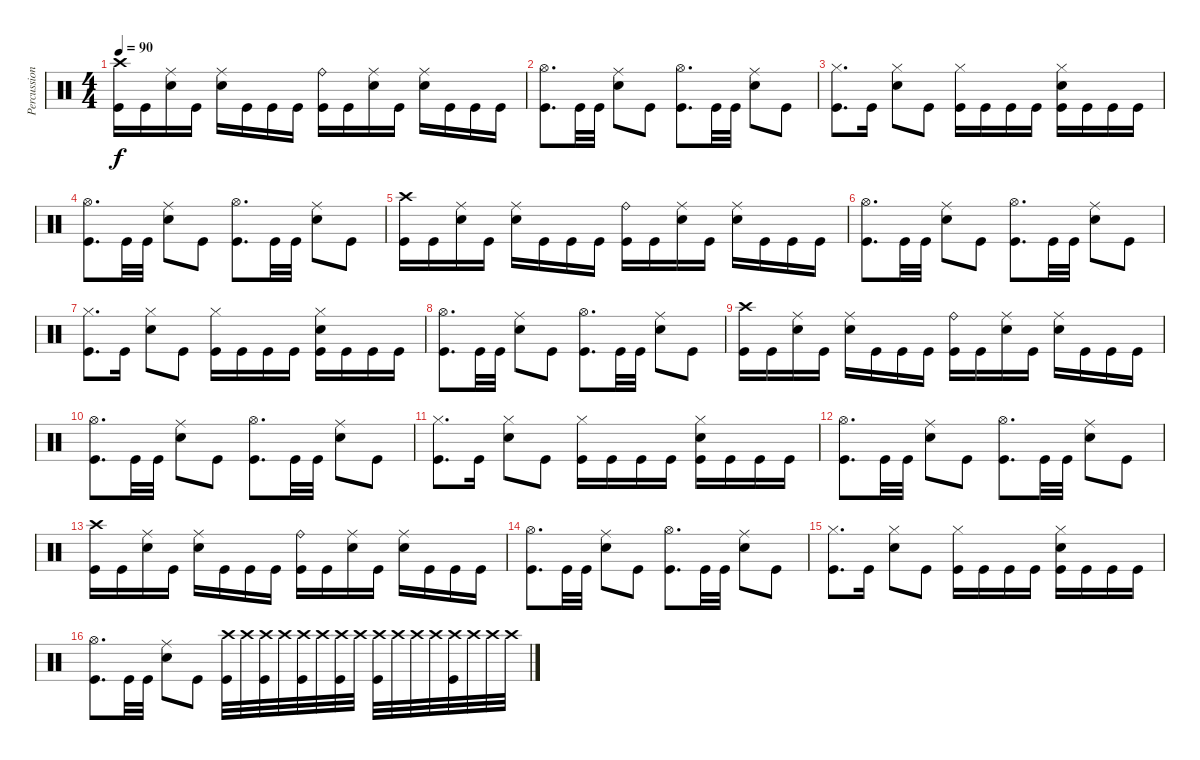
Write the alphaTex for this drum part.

\track ("Percussion" "Percussion") {instrument percussion}
\staff {score}
\articulation defaults
\ts (4 4)
\tempo 90
\clef neutral
\ks c
("Crash high (hit)" "Kick (hit)").16{dy f volume 4} "Kick (hit)".16 ("Ride (middle)" "Electric Snare (hit)").16 "Kick (hit)".16 ("Ride (middle)" "Electric Snare (hit)").16 "Kick (hit)".16 "Kick (hit)".16 "Kick (hit)".16 ("Ride (bell)" "Kick (hit)").16 "Kick (hit)".16 ("Ride (middle)" "Electric Snare (hit)").16 "Kick (hit)".16 ("Ride (middle)" "Electric Snare (hit)").16 "Kick (hit)".16 "Kick (hit)".16 "Kick (hit)".16 |
("Hi-Hat (open)" "Kick (hit)").8{d} "Kick (hit)".32 "Kick (hit)".32 ("Ride (middle)" "Electric Snare (hit)").8 "Kick (hit)".8 ("Hi-Hat (open)" "Kick (hit)").8{d} "Kick (hit)".32 "Kick (hit)".32 ("Ride (middle)" "Electric Snare (hit)").8 "Kick (hit)".8 |
("Hi-Hat (closed)" "Kick (hit)").8{d} "Kick (hit)".16 ("Hi-Hat (closed)" "Electric Snare (hit)").8 "Kick (hit)".8 ("Hi-Hat (closed)" "Kick (hit)").16 "Kick (hit)".16 "Kick (hit)".16 "Kick (hit)".16 ("Hi-Hat (closed)" "Electric Snare (hit)" "Kick (hit)").16 "Kick (hit)".16 "Kick (hit)".16 "Kick (hit)".16 |
("Hi-Hat (open)" "Kick (hit)").8{d} "Kick (hit)".32 "Kick (hit)".32 ("Ride (middle)" "Electric Snare (hit)").8 "Kick (hit)".8 ("Hi-Hat (open)" "Kick (hit)").8{d} "Kick (hit)".32 "Kick (hit)".32 ("Ride (middle)" "Electric Snare (hit)").8 "Kick (hit)".8 |
("Crash high (hit)" "Kick (hit)").16{volume 3} "Kick (hit)".16 ("Ride (middle)" "Electric Snare (hit)").16 "Kick (hit)".16 ("Ride (middle)" "Electric Snare (hit)").16 "Kick (hit)".16 "Kick (hit)".16 "Kick (hit)".16 ("Ride (bell)" "Kick (hit)").16 "Kick (hit)".16 ("Ride (middle)" "Electric Snare (hit)").16 "Kick (hit)".16 ("Ride (middle)" "Electric Snare (hit)").16 "Kick (hit)".16 "Kick (hit)".16 "Kick (hit)".16 |
("Hi-Hat (open)" "Kick (hit)").8{d} "Kick (hit)".32 "Kick (hit)".32 ("Ride (middle)" "Electric Snare (hit)").8 "Kick (hit)".8 ("Hi-Hat (open)" "Kick (hit)").8{d} "Kick (hit)".32 "Kick (hit)".32 ("Ride (middle)" "Electric Snare (hit)").8 "Kick (hit)".8 |
("Hi-Hat (closed)" "Kick (hit)").8{d} "Kick (hit)".16 ("Hi-Hat (closed)" "Electric Snare (hit)").8 "Kick (hit)".8 ("Hi-Hat (closed)" "Kick (hit)").16 "Kick (hit)".16 "Kick (hit)".16 "Kick (hit)".16 ("Hi-Hat (closed)" "Electric Snare (hit)" "Kick (hit)").16 "Kick (hit)".16 "Kick (hit)".16 "Kick (hit)".16 |
("Hi-Hat (open)" "Kick (hit)").8{d} "Kick (hit)".32 "Kick (hit)".32 ("Ride (middle)" "Electric Snare (hit)").8 "Kick (hit)".8 ("Hi-Hat (open)" "Kick (hit)").8{d} "Kick (hit)".32 "Kick (hit)".32 ("Ride (middle)" "Electric Snare (hit)").8 "Kick (hit)".8 |
("Crash high (hit)" "Kick (hit)").16{volume 2} "Kick (hit)".16 ("Ride (middle)" "Electric Snare (hit)").16 "Kick (hit)".16 ("Ride (middle)" "Electric Snare (hit)").16 "Kick (hit)".16 "Kick (hit)".16 "Kick (hit)".16 ("Ride (bell)" "Kick (hit)").16 "Kick (hit)".16 ("Ride (middle)" "Electric Snare (hit)").16 "Kick (hit)".16 ("Ride (middle)" "Electric Snare (hit)").16 "Kick (hit)".16 "Kick (hit)".16 "Kick (hit)".16 |
("Hi-Hat (open)" "Kick (hit)").8{d} "Kick (hit)".32 "Kick (hit)".32 ("Ride (middle)" "Electric Snare (hit)").8 "Kick (hit)".8 ("Hi-Hat (open)" "Kick (hit)").8{d} "Kick (hit)".32 "Kick (hit)".32 ("Ride (middle)" "Electric Snare (hit)").8 "Kick (hit)".8 |
("Hi-Hat (closed)" "Kick (hit)").8{d} "Kick (hit)".16 ("Hi-Hat (closed)" "Electric Snare (hit)").8 "Kick (hit)".8 ("Hi-Hat (closed)" "Kick (hit)").16 "Kick (hit)".16 "Kick (hit)".16 "Kick (hit)".16 ("Hi-Hat (closed)" "Electric Snare (hit)" "Kick (hit)").16 "Kick (hit)".16 "Kick (hit)".16 "Kick (hit)".16 |
("Hi-Hat (open)" "Kick (hit)").8{d} "Kick (hit)".32 "Kick (hit)".32 ("Ride (middle)" "Electric Snare (hit)").8 "Kick (hit)".8 ("Hi-Hat (open)" "Kick (hit)").8{d} "Kick (hit)".32 "Kick (hit)".32 ("Ride (middle)" "Electric Snare (hit)").8 "Kick (hit)".8 |
("Crash high (hit)" "Kick (hit)").16{volume 1} "Kick (hit)".16 ("Ride (middle)" "Electric Snare (hit)").16 "Kick (hit)".16 ("Ride (middle)" "Electric Snare (hit)").16 "Kick (hit)".16 "Kick (hit)".16 "Kick (hit)".16 ("Ride (bell)" "Kick (hit)").16 "Kick (hit)".16 ("Ride (middle)" "Electric Snare (hit)").16 "Kick (hit)".16 ("Ride (middle)" "Electric Snare (hit)").16 "Kick (hit)".16 "Kick (hit)".16 "Kick (hit)".16 |
("Hi-Hat (open)" "Kick (hit)").8{d} "Kick (hit)".32 "Kick (hit)".32 ("Ride (middle)" "Electric Snare (hit)").8 "Kick (hit)".8 ("Hi-Hat (open)" "Kick (hit)").8{d} "Kick (hit)".32 "Kick (hit)".32 ("Ride (middle)" "Electric Snare (hit)").8 "Kick (hit)".8 |
("Hi-Hat (closed)" "Kick (hit)").8{d} "Kick (hit)".16 ("Hi-Hat (closed)" "Electric Snare (hit)").8 "Kick (hit)".8 ("Hi-Hat (closed)" "Kick (hit)").16 "Kick (hit)".16 "Kick (hit)".16 "Kick (hit)".16 ("Hi-Hat (closed)" "Electric Snare (hit)" "Kick (hit)").16 "Kick (hit)".16 "Kick (hit)".16 "Kick (hit)".16 |
("Hi-Hat (open)" "Kick (hit)").8{d} "Kick (hit)".32 "Kick (hit)".32 ("Ride (middle)" "Electric Snare (hit)").8 "Kick (hit)".8 ("Crash high (hit)" "Kick (hit)").32 "Crash high (hit)".32 ("Crash high (hit)" "Kick (hit)").32 "Crash high (hit)".32 ("Crash high (hit)" "Kick (hit)").32 "Crash high (hit)".32 ("Crash high (hit)" "Kick (hit)").32 "Crash high (hit)".32 ("Crash high (hit)" "Kick (hit)").32 "Crash high (hit)".32 "Crash high (hit)".32 "Crash high (hit)".32 ("Crash high (hit)" "Kick (hit)").32 "Crash high (hit)".32 "Crash high (hit)".32 "Crash high (hit)".32
